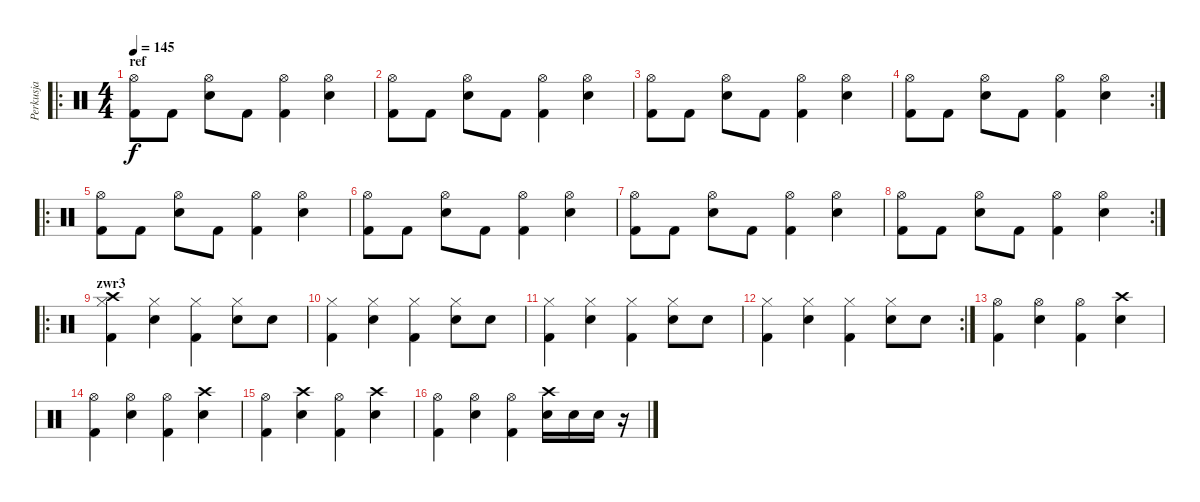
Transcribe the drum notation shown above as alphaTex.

\track ("Perkusja" "Perkusja") {instrument percussion}
\staff {score}
\articulation defaults
\ro
\ts (4 4)
\section ("" "ref")
\tempo 145
\clef neutral
\ks c
("Hi-Hat (open)" "Kick (hit) 2").8{dy f} "Kick (hit) 2".8 ("Hi-Hat (open)" "Electric Snare (hit)").8 "Kick (hit) 2".8 ("Hi-Hat (open)" "Kick (hit) 2").4 ("Hi-Hat (open)" "Electric Snare (hit)").4 |
("Hi-Hat (open)" "Kick (hit) 2").8 "Kick (hit) 2".8 ("Hi-Hat (open)" "Electric Snare (hit)").8 "Kick (hit) 2".8 ("Hi-Hat (open)" "Kick (hit) 2").4 ("Hi-Hat (open)" "Electric Snare (hit)").4 |
("Hi-Hat (open)" "Kick (hit) 2").8 "Kick (hit) 2".8 ("Hi-Hat (open)" "Electric Snare (hit)").8 "Kick (hit) 2".8 ("Hi-Hat (open)" "Kick (hit) 2").4 ("Hi-Hat (open)" "Electric Snare (hit)").4 |
\rc 2
("Hi-Hat (open)" "Kick (hit) 2").8 "Kick (hit) 2".8 ("Hi-Hat (open)" "Electric Snare (hit)").8 "Kick (hit) 2".8 ("Hi-Hat (open)" "Kick (hit) 2").4 ("Hi-Hat (open)" "Electric Snare (hit)").4 |
\ro
("Hi-Hat (open)" "Kick (hit) 2").8 "Kick (hit) 2".8 ("Hi-Hat (open)" "Electric Snare (hit)").8 "Kick (hit) 2".8 ("Hi-Hat (open)" "Kick (hit) 2").4 ("Hi-Hat (open)" "Electric Snare (hit)").4 |
("Hi-Hat (open)" "Kick (hit) 2").8 "Kick (hit) 2".8 ("Hi-Hat (open)" "Electric Snare (hit)").8 "Kick (hit) 2".8 ("Hi-Hat (open)" "Kick (hit) 2").4 ("Hi-Hat (open)" "Electric Snare (hit)").4 |
("Hi-Hat (open)" "Kick (hit) 2").8 "Kick (hit) 2".8 ("Hi-Hat (open)" "Electric Snare (hit)").8 "Kick (hit) 2".8 ("Hi-Hat (open)" "Kick (hit) 2").4 ("Hi-Hat (open)" "Electric Snare (hit)").4 |
\rc 2
("Hi-Hat (open)" "Kick (hit) 2").8 "Kick (hit) 2".8 ("Hi-Hat (open)" "Electric Snare (hit)").8 "Kick (hit) 2".8 ("Hi-Hat (open)" "Kick (hit) 2").4 ("Hi-Hat (open)" "Electric Snare (hit)").4 |
\ro
\section ("" "zwr3")
("Hi-Hat (closed)" "Kick (hit) 2" "Crash high (hit)").4 ("Hi-Hat (closed)" "Electric Snare (hit)").4 ("Hi-Hat (closed)" "Kick (hit) 2").4 ("Hi-Hat (closed)" "Electric Snare (hit)").8 "Electric Snare (hit)".8 |
("Hi-Hat (closed)" "Kick (hit) 2").4 ("Hi-Hat (closed)" "Electric Snare (hit)").4 ("Hi-Hat (closed)" "Kick (hit) 2").4 ("Hi-Hat (closed)" "Electric Snare (hit)").8 "Electric Snare (hit)".8 |
("Hi-Hat (closed)" "Kick (hit) 2").4 ("Hi-Hat (closed)" "Electric Snare (hit)").4 ("Hi-Hat (closed)" "Kick (hit) 2").4 ("Hi-Hat (closed)" "Electric Snare (hit)").8 "Electric Snare (hit)".8 |
\rc 2
("Hi-Hat (closed)" "Kick (hit) 2").4 ("Hi-Hat (closed)" "Electric Snare (hit)").4 ("Hi-Hat (closed)" "Kick (hit) 2").4 ("Hi-Hat (closed)" "Electric Snare (hit)").8 "Electric Snare (hit)".8 |
("Hi-Hat (open)" "Kick (hit) 2").4 ("Hi-Hat (open)" "Electric Snare (hit)").4 ("Hi-Hat (open)" "Kick (hit) 2").4 ("Crash high (hit)" "Electric Snare (hit)").4 |
("Hi-Hat (open)" "Kick (hit) 2").4 ("Hi-Hat (open)" "Electric Snare (hit)").4 ("Hi-Hat (open)" "Kick (hit) 2").4 ("Crash high (hit)" "Electric Snare (hit)").4 |
("Hi-Hat (open)" "Kick (hit) 2").4 ("Crash high (hit)" "Electric Snare (hit)").4 ("Hi-Hat (open)" "Kick (hit) 2").4 ("Crash high (hit)" "Electric Snare (hit)").4 |
("Hi-Hat (open)" "Kick (hit) 2").4 ("Hi-Hat (open)" "Electric Snare (hit)").4 ("Hi-Hat (open)" "Kick (hit) 2").4 ("Crash high (hit)" "Electric Snare (hit)").16 "Electric Snare (hit)".16 "Electric Snare (hit)".16 r.16
